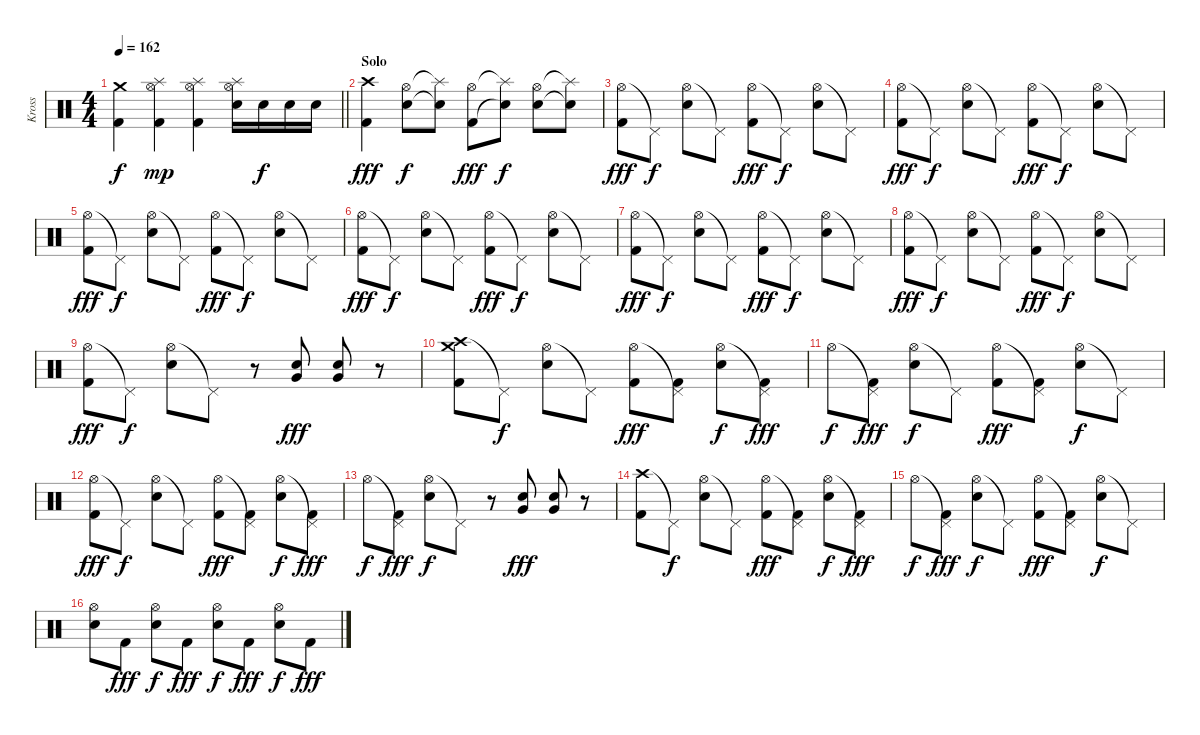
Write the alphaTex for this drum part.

\track ("Kross" "Kross") {instrument percussion}
\staff {score}
\articulation defaults
\ts (4 4)
\tempo 162
\clef neutral
\barLineRight lightlight
\ks c
("Crash medium (hit)" "Kick (hit) 2").4{dy f} ("Splash (hit)" "Hi-Hat (open)" "Kick (hit) 2").4{dy mp} ("Splash (hit)" "Hi-Hat (open)" "Kick (hit) 2").4 ("Splash (hit)" "Hi-Hat (open)" "Snare (hit) 2").16 "Snare (hit) 2".16{dy f} "Snare (hit) 2".16 "Snare (hit) 2".16 |
\section ("" "Solo")
("Crash high (hit)" "Kick (hit) 2").4{dy fff} ("Hi-Hat (open)" "Electric Snare (hit)").8{dy f} ("Splash (hit)"{t} "Snare (hit)"{t}).8 ("Hi-Hat (open)" "Kick (hit) 2").8{dy fff} ("Splash (hit)"{t} "Snare (hit)"{t}).8{dy f} ("Hi-Hat (open)" "Electric Snare (hit)").8 ("Splash (hit)"{t} "Snare (hit)"{t}).8 |
("Hi-Hat (open)" "Kick (hit) 2").8{dy fff} "Pedal Hi-Hat (hit)"{t}.8{dy f} ("Hi-Hat (open)" "Electric Snare (hit)").8 "Pedal Hi-Hat (hit)"{t}.8 ("Hi-Hat (open)" "Kick (hit) 2").8{dy fff} "Pedal Hi-Hat (hit)"{t}.8{dy f} ("Hi-Hat (open)" "Electric Snare (hit)").8 "Pedal Hi-Hat (hit)"{t}.8 |
("Hi-Hat (open)" "Kick (hit) 2").8{dy fff} "Pedal Hi-Hat (hit)"{t}.8{dy f} ("Hi-Hat (open)" "Electric Snare (hit)").8 "Pedal Hi-Hat (hit)"{t}.8 ("Hi-Hat (open)" "Kick (hit) 2").8{dy fff} "Pedal Hi-Hat (hit)"{t}.8{dy f} ("Hi-Hat (open)" "Electric Snare (hit)").8 "Pedal Hi-Hat (hit)"{t}.8 |
("Hi-Hat (open)" "Kick (hit) 2").8{dy fff} "Pedal Hi-Hat (hit)"{t}.8{dy f} ("Hi-Hat (open)" "Electric Snare (hit)").8 "Pedal Hi-Hat (hit)"{t}.8 ("Hi-Hat (open)" "Kick (hit) 2").8{dy fff} "Pedal Hi-Hat (hit)"{t}.8{dy f} ("Hi-Hat (open)" "Electric Snare (hit)").8 "Pedal Hi-Hat (hit)"{t}.8 |
("Hi-Hat (open)" "Kick (hit) 2").8{dy fff} "Pedal Hi-Hat (hit)"{t}.8{dy f} ("Hi-Hat (open)" "Electric Snare (hit)").8 "Pedal Hi-Hat (hit)"{t}.8 ("Hi-Hat (open)" "Kick (hit) 2").8{dy fff} "Pedal Hi-Hat (hit)"{t}.8{dy f} ("Hi-Hat (open)" "Electric Snare (hit)").8 "Pedal Hi-Hat (hit)"{t}.8 |
("Hi-Hat (open)" "Kick (hit) 2").8{dy fff} "Pedal Hi-Hat (hit)"{t}.8{dy f} ("Hi-Hat (open)" "Electric Snare (hit)").8 "Pedal Hi-Hat (hit)"{t}.8 ("Hi-Hat (open)" "Kick (hit) 2").8{dy fff} "Pedal Hi-Hat (hit)"{t}.8{dy f} ("Hi-Hat (open)" "Electric Snare (hit)").8 "Pedal Hi-Hat (hit)"{t}.8 |
("Hi-Hat (open)" "Kick (hit) 2").8{dy fff} "Pedal Hi-Hat (hit)"{t}.8{dy f} ("Hi-Hat (open)" "Electric Snare (hit)").8 "Pedal Hi-Hat (hit)"{t}.8 ("Hi-Hat (open)" "Kick (hit) 2").8{dy fff} "Pedal Hi-Hat (hit)"{t}.8{dy f} ("Hi-Hat (open)" "Electric Snare (hit)").8 "Pedal Hi-Hat (hit)"{t}.8 |
("Hi-Hat (open)" "Kick (hit) 2").8{dy fff} "Pedal Hi-Hat (hit)"{t}.8{dy f} ("Hi-Hat (open)" "Electric Snare (hit)").8 "Pedal Hi-Hat (hit)"{t}.8 r.8 ("Very Low Tom (hit)" "Electric Snare (hit)").8{dy fff} ("Very Low Tom (hit)" "Electric Snare (hit)").8 r.8 |
("Crash high (hit)" "Crash medium (hit)" "Kick (hit) 2").8 "Pedal Hi-Hat (hit)"{t}.8{dy f} ("Hi-Hat (open)" "Electric Snare (hit)").8 "Pedal Hi-Hat (hit)"{t}.8 ("Hi-Hat (open)" "Kick (hit) 2").8{dy fff} ("Pedal Hi-Hat (hit)"{t} "Kick (hit) 2").8 ("Hi-Hat (open)" "Electric Snare (hit)").8{dy f} ("Pedal Hi-Hat (hit)"{t} "Kick (hit) 2").8{dy fff} |
"Hi-Hat (open)".8{dy f} ("Pedal Hi-Hat (hit)"{t} "Kick (hit) 2").8{dy fff} ("Hi-Hat (open)" "Electric Snare (hit)").8{dy f} "Pedal Hi-Hat (hit)"{t}.8 ("Hi-Hat (open)" "Kick (hit) 2").8{dy fff} ("Pedal Hi-Hat (hit)"{t} "Kick (hit) 2").8 ("Hi-Hat (open)" "Electric Snare (hit)").8{dy f} "Pedal Hi-Hat (hit)"{t}.8 |
("Hi-Hat (open)" "Kick (hit) 2").8{dy fff} "Pedal Hi-Hat (hit)"{t}.8{dy f} ("Hi-Hat (open)" "Electric Snare (hit)").8 "Pedal Hi-Hat (hit)"{t}.8 ("Hi-Hat (open)" "Kick (hit) 2").8{dy fff} ("Pedal Hi-Hat (hit)"{t} "Kick (hit) 2").8 ("Hi-Hat (open)" "Electric Snare (hit)").8{dy f} ("Pedal Hi-Hat (hit)"{t} "Kick (hit) 2").8{dy fff} |
"Hi-Hat (open)".8{dy f} ("Pedal Hi-Hat (hit)"{t} "Kick (hit) 2").8{dy fff} ("Hi-Hat (open)" "Electric Snare (hit)").8{dy f} "Pedal Hi-Hat (hit)"{t}.8 r.8 ("Very Low Tom (hit)" "Electric Snare (hit)").8{dy fff} ("Very Low Tom (hit)" "Electric Snare (hit)").8 r.8 |
("Crash high (hit)" "Kick (hit) 2").8 "Pedal Hi-Hat (hit)"{t}.8{dy f} ("Hi-Hat (open)" "Electric Snare (hit)").8 "Pedal Hi-Hat (hit)"{t}.8 ("Hi-Hat (open)" "Kick (hit) 2").8{dy fff} ("Pedal Hi-Hat (hit)"{t} "Kick (hit) 2").8 ("Hi-Hat (open)" "Electric Snare (hit)").8{dy f} ("Pedal Hi-Hat (hit)"{t} "Kick (hit) 2").8{dy fff} |
"Hi-Hat (open)".8{dy f} ("Pedal Hi-Hat (hit)"{t} "Kick (hit) 2").8{dy fff} ("Hi-Hat (open)" "Electric Snare (hit)").8{dy f} "Pedal Hi-Hat (hit)"{t}.8 ("Hi-Hat (open)" "Kick (hit) 2").8{dy fff} ("Pedal Hi-Hat (hit)"{t} "Kick (hit) 2").8 ("Hi-Hat (open)" "Electric Snare (hit)").8{dy f} "Pedal Hi-Hat (hit)"{t}.8 |
("Hi-Hat (open)" "Electric Snare (hit)").8 "Kick (hit) 2".8{dy fff} ("Hi-Hat (open)" "Electric Snare (hit)").8{dy f} "Kick (hit) 2".8{dy fff} ("Hi-Hat (open)" "Electric Snare (hit)").8{dy f} "Kick (hit) 2".8{dy fff} ("Hi-Hat (open)" "Electric Snare (hit)").8{dy f} "Kick (hit) 2".8{dy fff}
